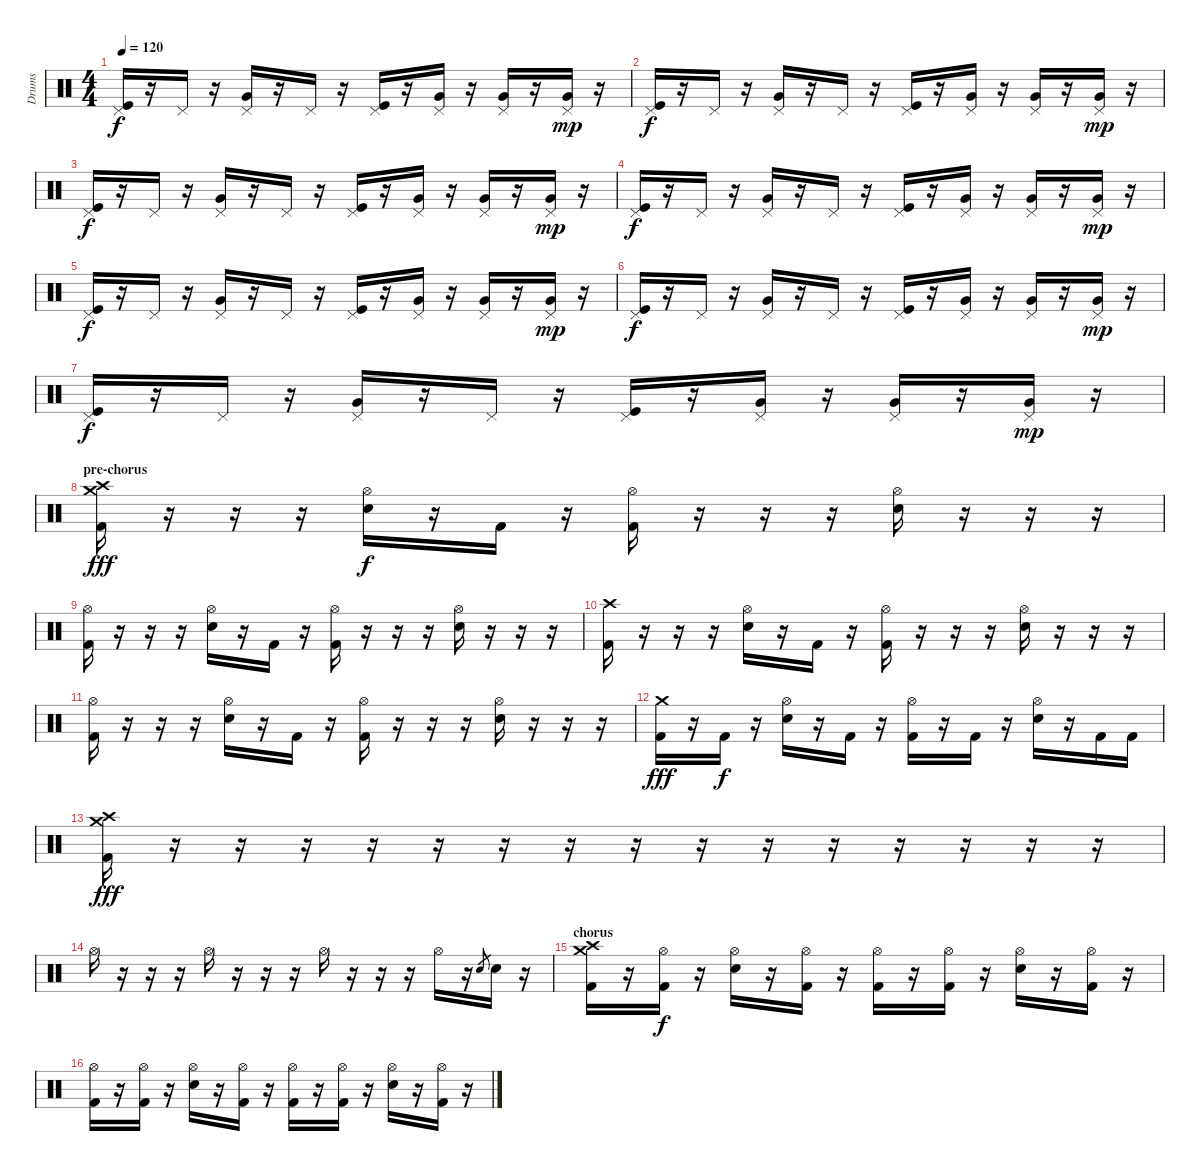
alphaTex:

\track ("Drums" "Drums") {instrument percussion}
\staff {score}
\articulation defaults
\ts (4 4)
\tempo 120
\clef neutral
\ks c
("Pedal Hi-Hat (hit)" "Kick (hit)").16{dy f} r.16 "Pedal Hi-Hat (hit)".16 r.16 ("Pedal Hi-Hat (hit)" "Very Low Tom (hit)").16 r.16 "Pedal Hi-Hat (hit)".16 r.16 ("Pedal Hi-Hat (hit)" "Kick (hit)").16 r.16 ("Pedal Hi-Hat (hit)" "Very Low Tom (hit)").16 r.16 ("Pedal Hi-Hat (hit)" "Very Low Tom (hit)").16 r.16 ("Pedal Hi-Hat (hit)" "Very Low Tom (hit)").16{dy mp} r.16 |
("Pedal Hi-Hat (hit)" "Kick (hit)").16{dy f} r.16 "Pedal Hi-Hat (hit)".16 r.16 ("Pedal Hi-Hat (hit)" "Very Low Tom (hit)").16 r.16 "Pedal Hi-Hat (hit)".16 r.16 ("Pedal Hi-Hat (hit)" "Kick (hit)").16 r.16 ("Pedal Hi-Hat (hit)" "Very Low Tom (hit)").16 r.16 ("Pedal Hi-Hat (hit)" "Very Low Tom (hit)").16 r.16 ("Pedal Hi-Hat (hit)" "Very Low Tom (hit)").16{dy mp} r.16 |
("Pedal Hi-Hat (hit)" "Kick (hit)").16{dy f} r.16 "Pedal Hi-Hat (hit)".16 r.16 ("Pedal Hi-Hat (hit)" "Very Low Tom (hit)").16 r.16 "Pedal Hi-Hat (hit)".16 r.16 ("Pedal Hi-Hat (hit)" "Kick (hit)").16 r.16 ("Pedal Hi-Hat (hit)" "Very Low Tom (hit)").16 r.16 ("Pedal Hi-Hat (hit)" "Very Low Tom (hit)").16 r.16 ("Pedal Hi-Hat (hit)" "Very Low Tom (hit)").16{dy mp} r.16 |
("Pedal Hi-Hat (hit)" "Kick (hit)").16{dy f} r.16 "Pedal Hi-Hat (hit)".16 r.16 ("Pedal Hi-Hat (hit)" "Very Low Tom (hit)").16 r.16 "Pedal Hi-Hat (hit)".16 r.16 ("Pedal Hi-Hat (hit)" "Kick (hit)").16 r.16 ("Pedal Hi-Hat (hit)" "Very Low Tom (hit)").16 r.16 ("Pedal Hi-Hat (hit)" "Very Low Tom (hit)").16 r.16 ("Pedal Hi-Hat (hit)" "Very Low Tom (hit)").16{dy mp} r.16 |
("Pedal Hi-Hat (hit)" "Kick (hit)").16{dy f} r.16 "Pedal Hi-Hat (hit)".16 r.16 ("Pedal Hi-Hat (hit)" "Very Low Tom (hit)").16 r.16 "Pedal Hi-Hat (hit)".16 r.16 ("Pedal Hi-Hat (hit)" "Kick (hit)").16 r.16 ("Pedal Hi-Hat (hit)" "Very Low Tom (hit)").16 r.16 ("Pedal Hi-Hat (hit)" "Very Low Tom (hit)").16 r.16 ("Pedal Hi-Hat (hit)" "Very Low Tom (hit)").16{dy mp} r.16 |
("Pedal Hi-Hat (hit)" "Kick (hit)").16{dy f} r.16 "Pedal Hi-Hat (hit)".16 r.16 ("Pedal Hi-Hat (hit)" "Very Low Tom (hit)").16 r.16 "Pedal Hi-Hat (hit)".16 r.16 ("Pedal Hi-Hat (hit)" "Kick (hit)").16 r.16 ("Pedal Hi-Hat (hit)" "Very Low Tom (hit)").16 r.16 ("Pedal Hi-Hat (hit)" "Very Low Tom (hit)").16 r.16 ("Pedal Hi-Hat (hit)" "Very Low Tom (hit)").16{dy mp} r.16 |
("Pedal Hi-Hat (hit)" "Kick (hit)").16{dy f} r.16 "Pedal Hi-Hat (hit)".16 r.16 ("Pedal Hi-Hat (hit)" "Very Low Tom (hit)").16 r.16 "Pedal Hi-Hat (hit)".16 r.16 ("Pedal Hi-Hat (hit)" "Kick (hit)").16 r.16 ("Pedal Hi-Hat (hit)" "Very Low Tom (hit)").16 r.16 ("Pedal Hi-Hat (hit)" "Very Low Tom (hit)").16 r.16 ("Pedal Hi-Hat (hit)" "Very Low Tom (hit)").16{dy mp} r.16 |
\section ("" "pre-chorus")
("Crash high (hit)" "Crash medium (hit)" "Kick (hit) 2").16{dy fff volume 14} r.16 r.16 r.16 ("Hi-Hat (open)" "Electric Snare (hit)").16{dy f} r.16 "Kick (hit) 2".16 r.16 ("Hi-Hat (open)" "Kick (hit) 2").16 r.16 r.16 r.16 ("Hi-Hat (open)" "Electric Snare (hit)").16 r.16 r.16 r.16 |
("Hi-Hat (open)" "Kick (hit) 2").16 r.16 r.16 r.16 ("Hi-Hat (open)" "Electric Snare (hit)").16 r.16 "Kick (hit) 2".16 r.16 ("Hi-Hat (open)" "Kick (hit) 2").16 r.16 r.16 r.16 ("Hi-Hat (open)" "Electric Snare (hit)").16 r.16 r.16 r.16 |
("Crash high (hit)" "Kick (hit) 2").16 r.16 r.16 r.16 ("Hi-Hat (open)" "Electric Snare (hit)").16 r.16 "Kick (hit) 2".16 r.16 ("Hi-Hat (open)" "Kick (hit) 2").16 r.16 r.16 r.16 ("Hi-Hat (open)" "Electric Snare (hit)").16 r.16 r.16 r.16 |
("Hi-Hat (open)" "Kick (hit) 2").16 r.16 r.16 r.16 ("Hi-Hat (open)" "Electric Snare (hit)").16 r.16 "Kick (hit) 2".16 r.16 ("Hi-Hat (open)" "Kick (hit) 2").16 r.16 r.16 r.16 ("Hi-Hat (open)" "Electric Snare (hit)").16 r.16 r.16 r.16 |
("Crash medium (hit)" "Kick (hit) 2").16{dy fff} r.16 "Kick (hit) 2".16{dy f} r.16 ("Hi-Hat (open)" "Electric Snare (hit)").16 r.16 "Kick (hit) 2".16 r.16 ("Hi-Hat (open)" "Kick (hit) 2").16 r.16 "Kick (hit) 2".16 r.16 ("Hi-Hat (open)" "Electric Snare (hit)").16 r.16 "Kick (hit) 2".16 "Kick (hit) 2".16 |
("Crash high (hit)" "Crash medium (hit)" "Kick (hit) 2").16{dy fff} r.16 r.16 r.16 r.16 r.16 r.16 r.16 r.16 r.16 r.16 r.16 r.16 r.16 r.16 r.16 |
"Hi-Hat (open)".16 r.16 r.16 r.16 "Hi-Hat (open)".16 r.16 r.16 r.16 "Hi-Hat (open)".16 r.16 r.16 r.16 "Hi-Hat (open)".16 r.16 "Electric Snare (hit)".8{gr} "Electric Snare (hit)".16 r.16 |
\section ("" "chorus")
("Crash high (hit)" "Crash medium (hit)" "Kick (hit) 2").16 r.16 ("Hi-Hat (open)" "Kick (hit) 2").16{dy f} r.16 ("Hi-Hat (open)" "Electric Snare (hit)").16 r.16 ("Hi-Hat (open)" "Kick (hit) 2").16 r.16 ("Hi-Hat (open)" "Kick (hit) 2").16 r.16 ("Hi-Hat (open)" "Kick (hit) 2").16 r.16 ("Hi-Hat (open)" "Electric Snare (hit)").16 r.16 ("Hi-Hat (open)" "Kick (hit) 2").16 r.16 |
("Hi-Hat (open)" "Kick (hit) 2").16 r.16 ("Hi-Hat (open)" "Kick (hit) 2").16 r.16 ("Hi-Hat (open)" "Electric Snare (hit)").16 r.16 ("Hi-Hat (open)" "Kick (hit) 2").16 r.16 ("Hi-Hat (open)" "Kick (hit) 2").16 r.16 ("Hi-Hat (open)" "Kick (hit) 2").16 r.16 ("Hi-Hat (open)" "Electric Snare (hit)").16 r.16 ("Hi-Hat (open)" "Kick (hit) 2").16 r.16
